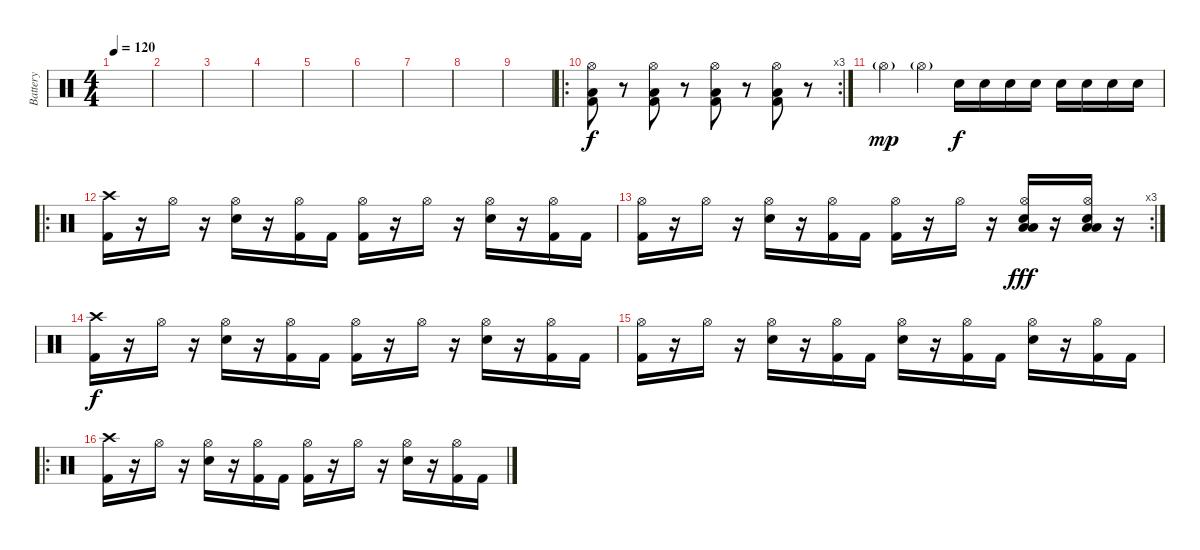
\track ("Battery" "Battery") {instrument percussion}
\staff {score}
\articulation defaults
\ts (4 4)
\tempo 120
\clef neutral
\ks c
|
|
|
|
|
|
|
|
|
\ro
\rc 3
("Kick (hit) 2" "Low Floor Tom (hit)" "Hi-Hat (open)").8 r.8 ("Kick (hit) 2" "Low Floor Tom (hit)" "Hi-Hat (open)").8 r.8 ("Kick (hit) 2" "Low Floor Tom (hit)" "Hi-Hat (open)").8 r.8 ("Kick (hit) 2" "Low Floor Tom (hit)" "Hi-Hat (open)").8 r.8 |
"Hi-Hat (open)"{g}.4{dy mp} "Hi-Hat (open)"{g}.4 "Electric Snare (hit)".16{dy f} "Electric Snare (hit)".16 "Electric Snare (hit)".16 "Electric Snare (hit)".16 "Electric Snare (hit)".16 "Electric Snare (hit)".16 "Electric Snare (hit)".16 "Electric Snare (hit)".16 |
\ro
("Crash high (hit)" "Kick (hit) 2").16 r.16 "Hi-Hat (open)".16 r.16 ("Hi-Hat (open)" "Electric Snare (hit)").16 r.16 ("Hi-Hat (open)" "Kick (hit) 2").16 "Kick (hit) 2".16 ("Hi-Hat (open)" "Kick (hit) 2").16 r.16 "Hi-Hat (open)".16 r.16 ("Hi-Hat (open)" "Electric Snare (hit)").16 r.16 ("Hi-Hat (open)" "Kick (hit) 2").16 "Kick (hit) 2".16 |
\rc 3
("Hi-Hat (open)" "Kick (hit) 2").16 r.16 "Hi-Hat (open)".16 r.16 ("Hi-Hat (open)" "Electric Snare (hit)").16 r.16 ("Hi-Hat (open)" "Kick (hit) 2").16 "Kick (hit) 2".16 ("Hi-Hat (open)" "Kick (hit) 2").16 r.16 "Hi-Hat (open)".16 r.16 ("Hi-Hat (open)" "Low Tom (hit)" "Low Floor Tom (hit)" "Electric Snare (hit)").16{dy fff} r.16 ("Hi-Hat (open)" "Low Tom (hit)" "Low Floor Tom (hit)" "Electric Snare (hit)").16 r.16 |
("Crash high (hit)" "Kick (hit) 2").16{dy f} r.16 "Hi-Hat (open)".16 r.16 ("Hi-Hat (open)" "Electric Snare (hit)").16 r.16 ("Hi-Hat (open)" "Kick (hit) 2").16 "Kick (hit) 2".16 ("Hi-Hat (open)" "Kick (hit) 2").16 r.16 "Hi-Hat (open)".16 r.16 ("Hi-Hat (open)" "Electric Snare (hit)").16 r.16 ("Hi-Hat (open)" "Kick (hit) 2").16 "Kick (hit) 2".16 |
("Hi-Hat (open)" "Kick (hit) 2").16 r.16 "Hi-Hat (open)".16 r.16 ("Hi-Hat (open)" "Electric Snare (hit)").16 r.16 ("Hi-Hat (open)" "Kick (hit) 2").16 "Kick (hit) 2".16 ("Hi-Hat (open)" "Electric Snare (hit)").16 r.16 ("Hi-Hat (open)" "Kick (hit) 2").16 "Kick (hit) 2".16 ("Hi-Hat (open)" "Electric Snare (hit)").16 r.16 ("Hi-Hat (open)" "Kick (hit) 2").16 "Kick (hit) 2".16 |
\ro
("Crash high (hit)" "Kick (hit) 2").16 r.16 "Hi-Hat (open)".16 r.16 ("Hi-Hat (open)" "Electric Snare (hit)").16 r.16 ("Hi-Hat (open)" "Kick (hit) 2").16 "Kick (hit) 2".16 ("Hi-Hat (open)" "Kick (hit) 2").16 r.16 "Hi-Hat (open)".16 r.16 ("Hi-Hat (open)" "Electric Snare (hit)").16 r.16 ("Hi-Hat (open)" "Kick (hit) 2").16 "Kick (hit) 2".16
